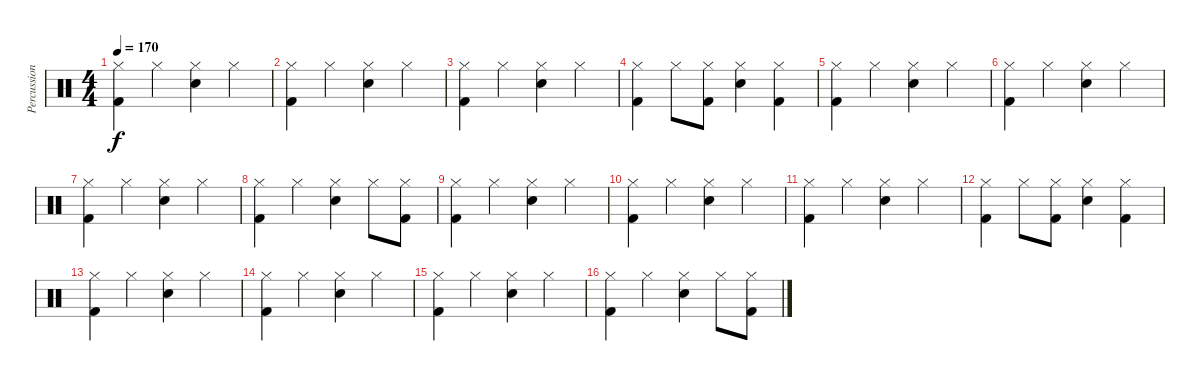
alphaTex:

\track ("Percussion" "Percussion") {instrument percussion}
\staff {score}
\articulation defaults
\ts (4 4)
\tempo 170
\clef neutral
\ks c
("Hi-Hat (closed)" "Kick (hit) 2").4{dy f} "Hi-Hat (closed)".4 ("Hi-Hat (closed)" "Snare (hit) 2").4 "Hi-Hat (closed)".4 |
("Hi-Hat (closed)" "Kick (hit) 2").4 "Hi-Hat (closed)".4 ("Hi-Hat (closed)" "Snare (hit) 2").4 "Hi-Hat (closed)".4 |
("Hi-Hat (closed)" "Kick (hit) 2").4 "Hi-Hat (closed)".4 ("Hi-Hat (closed)" "Snare (hit) 2").4 "Hi-Hat (closed)".4 |
("Hi-Hat (closed)" "Kick (hit) 2").4 "Hi-Hat (closed)".8 ("Hi-Hat (closed)" "Kick (hit) 2").8 ("Hi-Hat (closed)" "Snare (hit) 2").4 ("Hi-Hat (closed)" "Kick (hit) 2").4 |
("Hi-Hat (closed)" "Kick (hit) 2").4 "Hi-Hat (closed)".4 ("Hi-Hat (closed)" "Snare (hit) 2").4 "Hi-Hat (closed)".4 |
("Hi-Hat (closed)" "Kick (hit) 2").4 "Hi-Hat (closed)".4 ("Hi-Hat (closed)" "Snare (hit) 2").4 "Hi-Hat (closed)".4 |
("Hi-Hat (closed)" "Kick (hit) 2").4 "Hi-Hat (closed)".4 ("Hi-Hat (closed)" "Snare (hit) 2").4 "Hi-Hat (closed)".4 |
("Hi-Hat (closed)" "Kick (hit) 2").4 "Hi-Hat (closed)".4 ("Hi-Hat (closed)" "Snare (hit) 2").4 "Hi-Hat (closed)".8 ("Hi-Hat (closed)" "Kick (hit) 2").8 |
("Hi-Hat (closed)" "Kick (hit) 2").4 "Hi-Hat (closed)".4 ("Hi-Hat (closed)" "Snare (hit) 2").4 "Hi-Hat (closed)".4 |
("Hi-Hat (closed)" "Kick (hit) 2").4 "Hi-Hat (closed)".4 ("Hi-Hat (closed)" "Snare (hit) 2").4 "Hi-Hat (closed)".4 |
("Hi-Hat (closed)" "Kick (hit) 2").4 "Hi-Hat (closed)".4 ("Hi-Hat (closed)" "Snare (hit) 2").4 "Hi-Hat (closed)".4 |
("Hi-Hat (closed)" "Kick (hit) 2").4 "Hi-Hat (closed)".8 ("Hi-Hat (closed)" "Kick (hit) 2").8 ("Hi-Hat (closed)" "Snare (hit) 2").4 ("Hi-Hat (closed)" "Kick (hit) 2").4 |
("Hi-Hat (closed)" "Kick (hit) 2").4 "Hi-Hat (closed)".4 ("Hi-Hat (closed)" "Snare (hit) 2").4 "Hi-Hat (closed)".4 |
("Hi-Hat (closed)" "Kick (hit) 2").4 "Hi-Hat (closed)".4 ("Hi-Hat (closed)" "Snare (hit) 2").4 "Hi-Hat (closed)".4 |
("Hi-Hat (closed)" "Kick (hit) 2").4 "Hi-Hat (closed)".4 ("Hi-Hat (closed)" "Snare (hit) 2").4 "Hi-Hat (closed)".4 |
("Hi-Hat (closed)" "Kick (hit) 2").4 "Hi-Hat (closed)".4 ("Hi-Hat (closed)" "Snare (hit) 2").4 "Hi-Hat (closed)".8 ("Hi-Hat (closed)" "Kick (hit) 2").8
